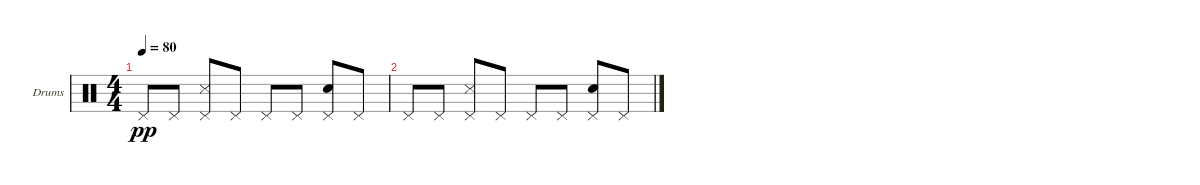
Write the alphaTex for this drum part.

\defaultSystemsLayout 4
\bracketExtendMode groupsimilarinstruments
\firstSystemTrackNameOrientation horizontal
\otherSystemsTrackNameOrientation horizontal
\track ("Drumkit" "Drums") {instrument percussion}
\staff {score}
\articulation defaults
\ts (4 4)
\tempo 80
\clef neutral
\ks c "Pedal Hi-Hat (hit)".8{dy pp} "Pedal Hi-Hat (hit)".8
("Pedal Hi-Hat (hit)" "Snare (side stick) 3").8 "Pedal Hi-Hat (hit)".8 "Pedal Hi-Hat (hit)".8 "Pedal Hi-Hat (hit)".8 ("Pedal Hi-Hat (hit)" "Snare (hit) 2").8 "Pedal Hi-Hat (hit)".8 |
"Pedal Hi-Hat (hit)".8 "Pedal Hi-Hat (hit)".8 ("Pedal Hi-Hat (hit)" "Snare (side stick) 3").8 "Pedal Hi-Hat (hit)".8 "Pedal Hi-Hat (hit)".8 "Pedal Hi-Hat (hit)".8 ("Pedal Hi-Hat (hit)" "Snare (hit) 2").8 "Pedal Hi-Hat (hit)".8
